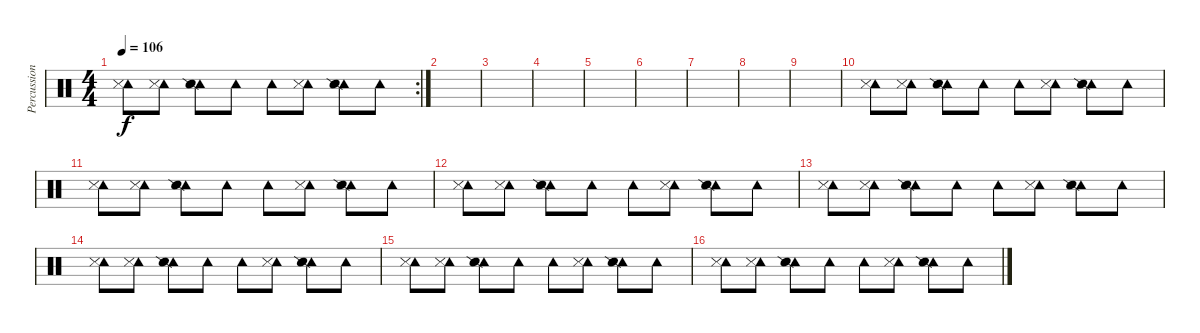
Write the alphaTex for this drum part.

\track ("Percussion" "Percussion") {instrument percussion}
\staff {score}
\articulation defaults
\rc 2
\ts (4 4)
\tempo 106
\clef neutral
\ks c
("Tambourine (hit)" "Snare (side stick) 3").8{dy f} ("Tambourine (hit)" "Snare (side stick) 3").8 ("Tambourine (hit)" "Snare (side stick) 2").8 "Tambourine (hit)".8 "Tambourine (hit)".8 ("Tambourine (hit)" "Snare (side stick) 3").8 ("Tambourine (hit)" "Snare (side stick) 2").8 "Tambourine (hit)".8 |
|
|
|
|
|
|
|
|
("Tambourine (hit)" "Snare (side stick) 3").8 ("Tambourine (hit)" "Snare (side stick) 3").8 ("Tambourine (hit)" "Snare (side stick) 2").8 "Tambourine (hit)".8 "Tambourine (hit)".8 ("Tambourine (hit)" "Snare (side stick) 3").8 ("Tambourine (hit)" "Snare (side stick) 2").8 "Tambourine (hit)".8 |
("Tambourine (hit)" "Snare (side stick) 3").8 ("Tambourine (hit)" "Snare (side stick) 3").8 ("Tambourine (hit)" "Snare (side stick) 2").8 "Tambourine (hit)".8 "Tambourine (hit)".8 ("Tambourine (hit)" "Snare (side stick) 3").8 ("Tambourine (hit)" "Snare (side stick) 2").8 "Tambourine (hit)".8 |
("Tambourine (hit)" "Snare (side stick) 3").8 ("Tambourine (hit)" "Snare (side stick) 3").8 ("Tambourine (hit)" "Snare (side stick) 2").8 "Tambourine (hit)".8 "Tambourine (hit)".8 ("Tambourine (hit)" "Snare (side stick) 3").8 ("Tambourine (hit)" "Snare (side stick) 2").8 "Tambourine (hit)".8 |
("Tambourine (hit)" "Snare (side stick) 3").8 ("Tambourine (hit)" "Snare (side stick) 3").8 ("Tambourine (hit)" "Snare (side stick) 2").8 "Tambourine (hit)".8 "Tambourine (hit)".8 ("Tambourine (hit)" "Snare (side stick) 3").8 ("Tambourine (hit)" "Snare (side stick) 2").8 "Tambourine (hit)".8 |
("Tambourine (hit)" "Snare (side stick) 3").8 ("Tambourine (hit)" "Snare (side stick) 3").8 ("Tambourine (hit)" "Snare (side stick) 2").8 "Tambourine (hit)".8 "Tambourine (hit)".8 ("Tambourine (hit)" "Snare (side stick) 3").8 ("Tambourine (hit)" "Snare (side stick) 2").8 "Tambourine (hit)".8 |
("Tambourine (hit)" "Snare (side stick) 3").8 ("Tambourine (hit)" "Snare (side stick) 3").8 ("Tambourine (hit)" "Snare (side stick) 2").8 "Tambourine (hit)".8 "Tambourine (hit)".8 ("Tambourine (hit)" "Snare (side stick) 3").8 ("Tambourine (hit)" "Snare (side stick) 2").8 "Tambourine (hit)".8 |
("Tambourine (hit)" "Snare (side stick) 3").8 ("Tambourine (hit)" "Snare (side stick) 3").8 ("Tambourine (hit)" "Snare (side stick) 2").8 "Tambourine (hit)".8 "Tambourine (hit)".8 ("Tambourine (hit)" "Snare (side stick) 3").8 ("Tambourine (hit)" "Snare (side stick) 2").8 "Tambourine (hit)".8
